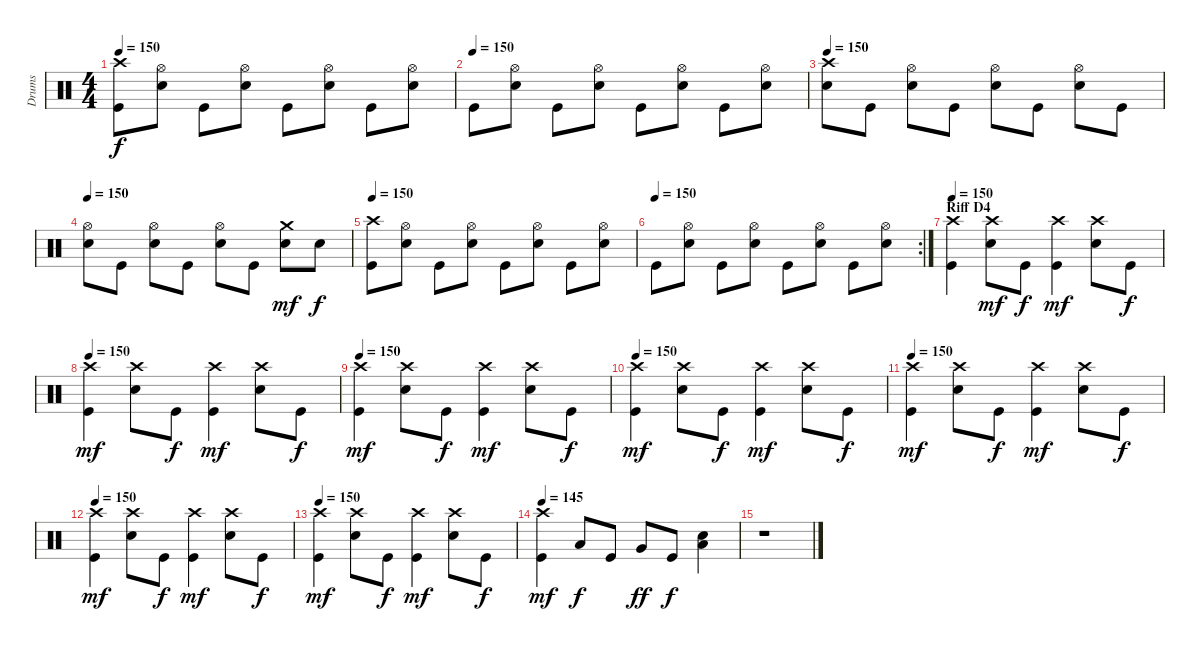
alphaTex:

\track ("Drums" "Drums") {instrument percussion}
\staff {score}
\articulation defaults
\ts (4 4)
\tempo 150
\clef neutral
\ks c
("Crash high (hit)" "Kick (hit)").8{dy f} ("Hi-Hat (open)" "Snare (hit) 2").8 "Kick (hit)".8 ("Hi-Hat (open)" "Snare (hit) 2").8 "Kick (hit)".8 ("Hi-Hat (open)" "Snare (hit) 2").8 "Kick (hit)".8 ("Hi-Hat (open)" "Snare (hit) 2").8 |
\tempo (150)
"Kick (hit)".8 ("Hi-Hat (open)" "Snare (hit) 2").8 "Kick (hit)".8 ("Hi-Hat (open)" "Snare (hit) 2").8 "Kick (hit)".8 ("Hi-Hat (open)" "Snare (hit) 2").8 "Kick (hit)".8 ("Hi-Hat (open)" "Snare (hit) 2").8 |
\tempo 150
("Crash high (hit)" "Snare (hit) 2").8 "Kick (hit)".8 ("Hi-Hat (open)" "Snare (hit) 2").8 "Kick (hit)".8 ("Hi-Hat (open)" "Snare (hit) 2").8 "Kick (hit)".8 ("Hi-Hat (open)" "Snare (hit) 2").8 "Kick (hit)".8 |
\tempo 150
("Hi-Hat (open)" "Snare (hit) 2").8 "Kick (hit)".8 ("Hi-Hat (open)" "Snare (hit) 2").8 "Kick (hit)".8 ("Hi-Hat (open)" "Snare (hit) 2").8 "Kick (hit)".8 ("Crash medium (hit)" "Snare (hit) 2").8{dy mf} "Snare (hit) 2".8{dy f} |
\tempo 150
("Crash high (hit)" "Kick (hit)").8 ("Hi-Hat (open)" "Snare (hit) 2").8 "Kick (hit)".8 ("Hi-Hat (open)" "Snare (hit) 2").8 "Kick (hit)".8 ("Hi-Hat (open)" "Snare (hit) 2").8 "Kick (hit)".8 ("Hi-Hat (open)" "Snare (hit) 2").8 |
\rc 2
\tempo (150)
"Kick (hit)".8 ("Hi-Hat (open)" "Snare (hit) 2").8 "Kick (hit)".8 ("Hi-Hat (open)" "Snare (hit) 2").8 "Kick (hit)".8 ("Hi-Hat (open)" "Snare (hit) 2").8 "Kick (hit)".8 ("Hi-Hat (open)" "Snare (hit) 2").8 |
\section ("" "Riff D4")
\tempo 150
("Crash high (hit)" "Kick (hit)").4 ("Crash high (hit)" "Snare (hit) 2").8{dy mf} "Kick (hit)".8{dy f} ("Crash high (hit)" "Kick (hit)").4{dy mf} ("Crash high (hit)" "Snare (hit) 2").8 "Kick (hit)".8{dy f} |
\tempo 150
("Crash high (hit)" "Kick (hit)").4{dy mf} ("Crash high (hit)" "Snare (hit) 2").8 "Kick (hit)".8{dy f} ("Crash high (hit)" "Kick (hit)").4{dy mf} ("Crash high (hit)" "Snare (hit) 2").8 "Kick (hit)".8{dy f} |
\tempo 150
("Crash high (hit)" "Kick (hit)").4{dy mf} ("Crash high (hit)" "Snare (hit) 2").8 "Kick (hit)".8{dy f} ("Crash high (hit)" "Kick (hit)").4{dy mf} ("Crash high (hit)" "Snare (hit) 2").8 "Kick (hit)".8{dy f} |
\tempo 150
("Crash high (hit)" "Kick (hit)").4{dy mf} ("Crash high (hit)" "Snare (hit) 2").8 "Kick (hit)".8{dy f} ("Crash high (hit)" "Kick (hit)").4{dy mf} ("Crash high (hit)" "Snare (hit) 2").8 "Kick (hit)".8{dy f} |
\tempo 150
("Crash high (hit)" "Kick (hit)").4{dy mf} ("Crash high (hit)" "Snare (hit) 2").8 "Kick (hit)".8{dy f} ("Crash high (hit)" "Kick (hit)").4{dy mf} ("Crash high (hit)" "Snare (hit) 2").8 "Kick (hit)".8{dy f} |
\tempo 150
("Crash high (hit)" "Kick (hit)").4{dy mf} ("Crash high (hit)" "Snare (hit) 2").8 "Kick (hit)".8{dy f} ("Crash high (hit)" "Kick (hit)").4{dy mf} ("Crash high (hit)" "Snare (hit) 2").8 "Kick (hit)".8{dy f} |
\tempo 150
("Crash high (hit)" "Kick (hit)").4{dy mf} ("Crash high (hit)" "Snare (hit) 2").8 "Kick (hit)".8{dy f} ("Crash high (hit)" "Kick (hit)").4{dy mf} ("Crash high (hit)" "Snare (hit) 2").8 "Kick (hit)".8{dy f} |
\tempo 145
("Crash high (hit)" "Kick (hit)").4{dy mf} "Low Tom (hit)".8{dy f} "Kick (hit)".8 "Very Low Tom (hit)".8{dy ff} "Kick (hit)".8{dy f} ("Low Floor Tom (hit)" "Snare (hit) 2").4 |
r.1
